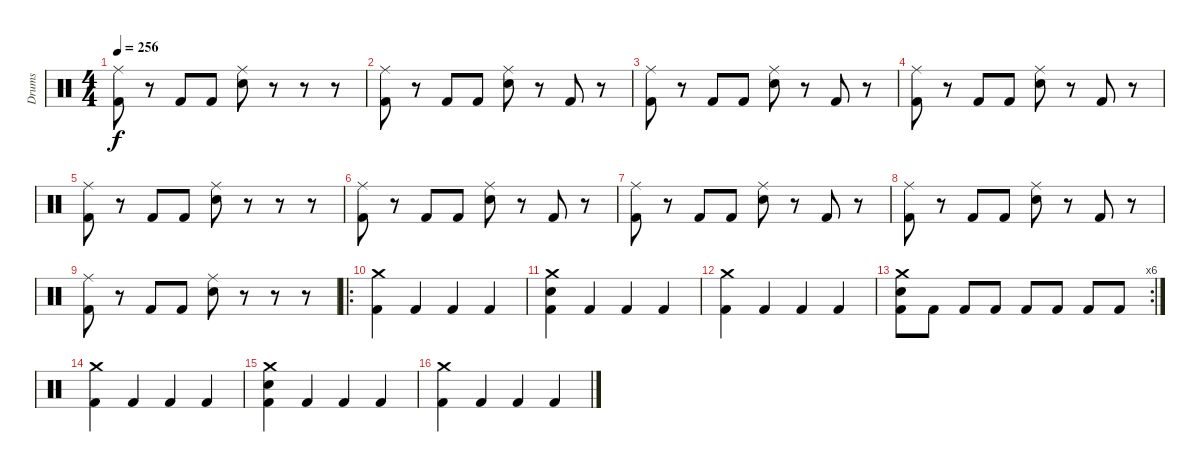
\track ("Drums" "Drums") {instrument percussion}
\staff {score}
\articulation defaults
\ts (4 4)
\tempo 256
\clef neutral
\ks c
("Ride (middle)" "Kick (hit) 2").8{dy f} r.8 "Kick (hit) 2".8 "Kick (hit) 2".8 ("Ride (middle)" "Electric Snare (hit)").8 r.8 r.8 r.8 |
("Ride (middle)" "Kick (hit) 2").8 r.8 "Kick (hit) 2".8 "Kick (hit) 2".8 ("Ride (middle)" "Electric Snare (hit)").8 r.8 "Kick (hit) 2".8 r.8 |
("Ride (middle)" "Kick (hit) 2").8 r.8 "Kick (hit) 2".8 "Kick (hit) 2".8 ("Ride (middle)" "Electric Snare (hit)").8 r.8 "Kick (hit) 2".8 r.8 |
("Ride (middle)" "Kick (hit) 2").8 r.8 "Kick (hit) 2".8 "Kick (hit) 2".8 ("Ride (middle)" "Electric Snare (hit)").8 r.8 "Kick (hit) 2".8 r.8 |
("Ride (middle)" "Kick (hit) 2").8 r.8 "Kick (hit) 2".8 "Kick (hit) 2".8 ("Ride (middle)" "Electric Snare (hit)").8 r.8 r.8 r.8 |
("Ride (middle)" "Kick (hit) 2").8 r.8 "Kick (hit) 2".8 "Kick (hit) 2".8 ("Ride (middle)" "Electric Snare (hit)").8 r.8 "Kick (hit) 2".8 r.8 |
("Ride (middle)" "Kick (hit) 2").8 r.8 "Kick (hit) 2".8 "Kick (hit) 2".8 ("Ride (middle)" "Electric Snare (hit)").8 r.8 "Kick (hit) 2".8 r.8 |
("Ride (middle)" "Kick (hit) 2").8 r.8 "Kick (hit) 2".8 "Kick (hit) 2".8 ("Ride (middle)" "Electric Snare (hit)").8 r.8 "Kick (hit) 2".8 r.8 |
("Ride (middle)" "Kick (hit) 2").8 r.8 "Kick (hit) 2".8 "Kick (hit) 2".8 ("Ride (middle)" "Electric Snare (hit)").8 r.8 r.8 r.8 |
\ro
("Crash medium (hit)" "Kick (hit) 2").4 "Kick (hit) 2".4 "Kick (hit) 2".4 "Kick (hit) 2".4 |
("Crash medium (hit)" "Electric Snare (hit)" "Kick (hit) 2").4 "Kick (hit) 2".4 "Kick (hit) 2".4 "Kick (hit) 2".4 |
("Crash medium (hit)" "Kick (hit) 2").4 "Kick (hit) 2".4 "Kick (hit) 2".4 "Kick (hit) 2".4 |
\rc 6
("Crash medium (hit)" "Electric Snare (hit)" "Kick (hit) 2").8 "Kick (hit) 2".8 "Kick (hit) 2".8 "Kick (hit) 2".8 "Kick (hit) 2".8 "Kick (hit) 2".8 "Kick (hit) 2".8 "Kick (hit) 2".8 |
("Crash medium (hit)" "Kick (hit) 2").4 "Kick (hit) 2".4 "Kick (hit) 2".4 "Kick (hit) 2".4 |
("Crash medium (hit)" "Electric Snare (hit)" "Kick (hit) 2").4 "Kick (hit) 2".4 "Kick (hit) 2".4 "Kick (hit) 2".4 |
("Crash medium (hit)" "Kick (hit) 2").4 "Kick (hit) 2".4 "Kick (hit) 2".4 "Kick (hit) 2".4
